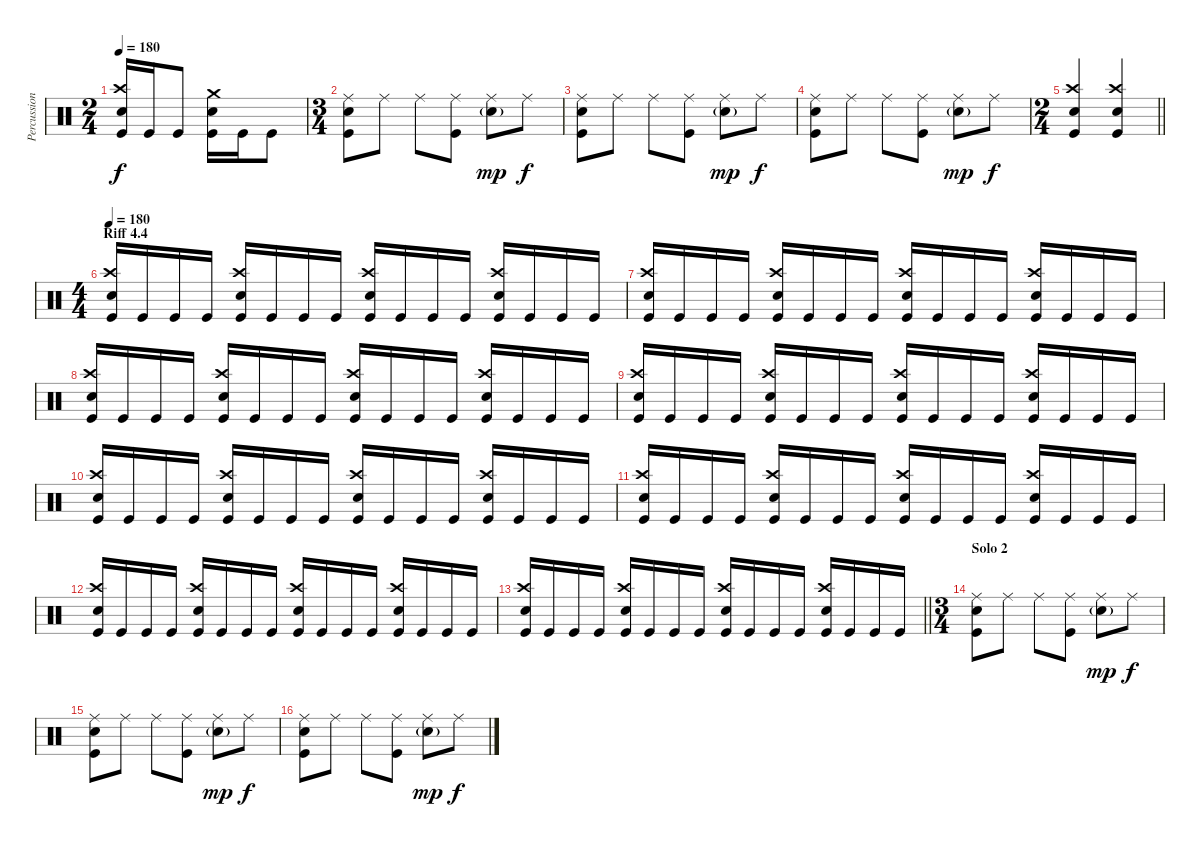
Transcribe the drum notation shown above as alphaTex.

\track ("Percussion" "Percussion") {instrument percussion}
\staff {score}
\articulation defaults
\ts (2 4)
\tempo 180
\clef neutral
\ks c
("Snare (hit) 2" "Crash high (hit)" "Kick (hit)").16{dy f} "Kick (hit)".16 "Kick (hit)".8 ("Snare (hit) 2" "Crash medium (hit)" "Kick (hit)").16 "Kick (hit)".16 "Kick (hit)".8 |
\ts (3 4)
("Snare (hit) 2" "Ride (middle)" "Kick (hit)").8 "Ride (middle)".8 "Ride (middle)".8 ("Ride (middle)" "Kick (hit)").8 ("Ride (middle)" "Snare (hit) 2"{g}).8{dy mp} "Ride (middle)".8{dy f} |
("Snare (hit) 2" "Ride (middle)" "Kick (hit)").8 "Ride (middle)".8 "Ride (middle)".8 ("Ride (middle)" "Kick (hit)").8 ("Ride (middle)" "Snare (hit) 2"{g}).8{dy mp} "Ride (middle)".8{dy f} |
("Snare (hit) 2" "Ride (middle)" "Kick (hit)").8 "Ride (middle)".8 "Ride (middle)".8 ("Ride (middle)" "Kick (hit)").8 ("Ride (middle)" "Snare (hit) 2"{g}).8{dy mp} "Ride (middle)".8{dy f} |
\ts (2 4)
\barLineRight lightlight
("Kick (hit)" "Crash high (hit)" "Snare (hit) 2").4 ("Kick (hit)" "Crash high (hit)" "Snare (hit) 2").4 |
\ts (4 4)
\section ("" "Riff 4.4")
\tempo 180
("Snare (hit) 2" "Crash high (hit)" "Kick (hit)").16 "Kick (hit)".16 "Kick (hit)".16 "Kick (hit)".16 ("Crash high (hit)" "Snare (hit) 2" "Kick (hit)").16 "Kick (hit)".16 "Kick (hit)".16 "Kick (hit)".16 ("Snare (hit) 2" "Crash high (hit)" "Kick (hit)").16 "Kick (hit)".16 "Kick (hit)".16 "Kick (hit)".16 ("Snare (hit) 2" "Crash high (hit)" "Kick (hit)").16 "Kick (hit)".16 "Kick (hit)".16 "Kick (hit)".16 |
("Snare (hit) 2" "Crash high (hit)" "Kick (hit)").16 "Kick (hit)".16 "Kick (hit)".16 "Kick (hit)".16 ("Crash high (hit)" "Snare (hit) 2" "Kick (hit)").16 "Kick (hit)".16 "Kick (hit)".16 "Kick (hit)".16 ("Snare (hit) 2" "Crash high (hit)" "Kick (hit)").16 "Kick (hit)".16 "Kick (hit)".16 "Kick (hit)".16 ("Snare (hit) 2" "Crash high (hit)" "Kick (hit)").16 "Kick (hit)".16 "Kick (hit)".16 "Kick (hit)".16 |
("Snare (hit) 2" "Crash high (hit)" "Kick (hit)").16 "Kick (hit)".16 "Kick (hit)".16 "Kick (hit)".16 ("Crash high (hit)" "Snare (hit) 2" "Kick (hit)").16 "Kick (hit)".16 "Kick (hit)".16 "Kick (hit)".16 ("Snare (hit) 2" "Crash high (hit)" "Kick (hit)").16 "Kick (hit)".16 "Kick (hit)".16 "Kick (hit)".16 ("Snare (hit) 2" "Crash high (hit)" "Kick (hit)").16 "Kick (hit)".16 "Kick (hit)".16 "Kick (hit)".16 |
("Snare (hit) 2" "Crash high (hit)" "Kick (hit)").16 "Kick (hit)".16 "Kick (hit)".16 "Kick (hit)".16 ("Crash high (hit)" "Snare (hit) 2" "Kick (hit)").16 "Kick (hit)".16 "Kick (hit)".16 "Kick (hit)".16 ("Snare (hit) 2" "Crash high (hit)" "Kick (hit)").16 "Kick (hit)".16 "Kick (hit)".16 "Kick (hit)".16 ("Snare (hit) 2" "Crash high (hit)" "Kick (hit)").16 "Kick (hit)".16 "Kick (hit)".16 "Kick (hit)".16 |
("Snare (hit) 2" "Crash high (hit)" "Kick (hit)").16 "Kick (hit)".16 "Kick (hit)".16 "Kick (hit)".16 ("Crash high (hit)" "Snare (hit) 2" "Kick (hit)").16 "Kick (hit)".16 "Kick (hit)".16 "Kick (hit)".16 ("Snare (hit) 2" "Crash high (hit)" "Kick (hit)").16 "Kick (hit)".16 "Kick (hit)".16 "Kick (hit)".16 ("Snare (hit) 2" "Crash high (hit)" "Kick (hit)").16 "Kick (hit)".16 "Kick (hit)".16 "Kick (hit)".16 |
("Snare (hit) 2" "Crash high (hit)" "Kick (hit)").16 "Kick (hit)".16 "Kick (hit)".16 "Kick (hit)".16 ("Crash high (hit)" "Snare (hit) 2" "Kick (hit)").16 "Kick (hit)".16 "Kick (hit)".16 "Kick (hit)".16 ("Snare (hit) 2" "Crash high (hit)" "Kick (hit)").16 "Kick (hit)".16 "Kick (hit)".16 "Kick (hit)".16 ("Snare (hit) 2" "Crash high (hit)" "Kick (hit)").16 "Kick (hit)".16 "Kick (hit)".16 "Kick (hit)".16 |
("Snare (hit) 2" "Crash high (hit)" "Kick (hit)").16 "Kick (hit)".16 "Kick (hit)".16 "Kick (hit)".16 ("Crash high (hit)" "Snare (hit) 2" "Kick (hit)").16 "Kick (hit)".16 "Kick (hit)".16 "Kick (hit)".16 ("Snare (hit) 2" "Crash high (hit)" "Kick (hit)").16 "Kick (hit)".16 "Kick (hit)".16 "Kick (hit)".16 ("Snare (hit) 2" "Crash high (hit)" "Kick (hit)").16 "Kick (hit)".16 "Kick (hit)".16 "Kick (hit)".16 |
\barLineRight lightlight
("Snare (hit) 2" "Crash high (hit)" "Kick (hit)").16 "Kick (hit)".16 "Kick (hit)".16 "Kick (hit)".16 ("Crash high (hit)" "Snare (hit) 2" "Kick (hit)").16 "Kick (hit)".16 "Kick (hit)".16 "Kick (hit)".16 ("Snare (hit) 2" "Crash high (hit)" "Kick (hit)").16 "Kick (hit)".16 "Kick (hit)".16 "Kick (hit)".16 ("Snare (hit) 2" "Crash high (hit)" "Kick (hit)").16 "Kick (hit)".16 "Kick (hit)".16 "Kick (hit)".16 |
\ts (3 4)
\section ("" "Solo 2")
("Snare (hit) 2" "Ride (middle)" "Kick (hit)").8 "Ride (middle)".8 "Ride (middle)".8 ("Ride (middle)" "Kick (hit)").8 ("Ride (middle)" "Snare (hit) 2"{g}).8{dy mp} "Ride (middle)".8{dy f} |
("Snare (hit) 2" "Ride (middle)" "Kick (hit)").8 "Ride (middle)".8 "Ride (middle)".8 ("Ride (middle)" "Kick (hit)").8 ("Ride (middle)" "Snare (hit) 2"{g}).8{dy mp} "Ride (middle)".8{dy f} |
("Snare (hit) 2" "Ride (middle)" "Kick (hit)").8 "Ride (middle)".8 "Ride (middle)".8 ("Ride (middle)" "Kick (hit)").8 ("Ride (middle)" "Snare (hit) 2"{g}).8{dy mp} "Ride (middle)".8{dy f}
